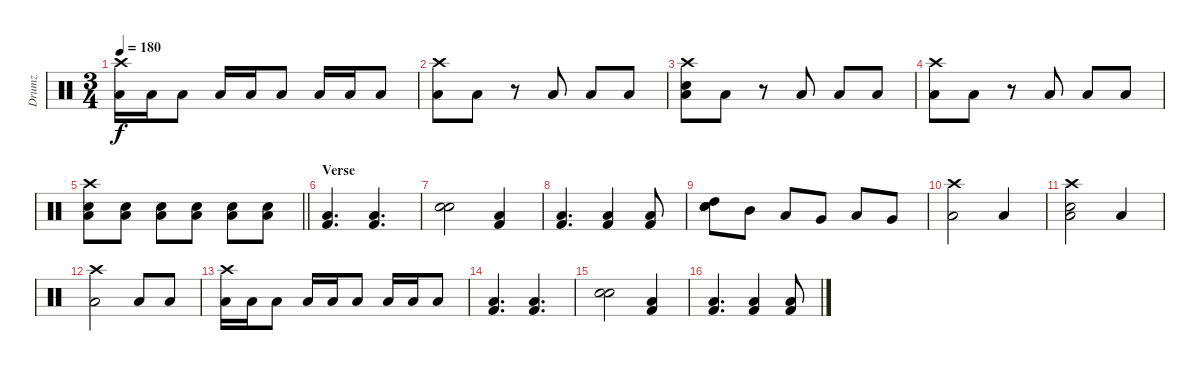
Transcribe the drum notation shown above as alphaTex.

\track ("Drumz" "Drumz") {instrument percussion}
\staff {score}
\articulation defaults
\ts (3 4)
\tempo 180
\clef neutral
\ks c
("Low Floor Tom (hit)" "Crash high (hit)").16{dy f} "Low Floor Tom (hit)".16 "Low Floor Tom (hit)".8 "Low Floor Tom (hit)".16 "Low Floor Tom (hit)".16 "Low Floor Tom (hit)".8 "Low Floor Tom (hit)".16 "Low Floor Tom (hit)".16 "Low Floor Tom (hit)".8 |
("Low Floor Tom (hit)" "Crash high (hit)").8 "Low Floor Tom (hit)".8 r.8 "Low Floor Tom (hit)".8 "Low Floor Tom (hit)".8 "Low Floor Tom (hit)".8 |
("Low Floor Tom (hit)" "Crash high (hit)" "Electric Snare (hit)").8 "Low Floor Tom (hit)".8 r.8 "Low Floor Tom (hit)".8 "Low Floor Tom (hit)".8 "Low Floor Tom (hit)".8 |
("Low Floor Tom (hit)" "Crash high (hit)").8 "Low Floor Tom (hit)".8 r.8 "Low Floor Tom (hit)".8 "Low Floor Tom (hit)".8 "Low Floor Tom (hit)".8 |
\barLineRight lightlight
("Low Floor Tom (hit)" "Crash high (hit)" "Snare (hit) 2").8 ("Low Floor Tom (hit)" "Snare (hit) 2").8 ("Low Floor Tom (hit)" "Snare (hit) 2").8 ("Low Floor Tom (hit)" "Snare (hit) 2").8 ("Low Floor Tom (hit)" "Snare (hit) 2").8 ("Low Floor Tom (hit)" "Snare (hit) 2").8 |
\section ("" "Verse")
("Kick (hit) 2" "Low Floor Tom (hit)").4{d} ("Kick (hit) 2" "Low Floor Tom (hit)").4{d} |
("Electric Snare (hit)" "Electric Snare (hit)").2 ("Kick (hit) 2" "Low Floor Tom (hit)").4 |
("Kick (hit) 2" "Low Floor Tom (hit)").4{d} ("Kick (hit) 2" "Low Floor Tom (hit)").4 ("Kick (hit) 2" "Low Floor Tom (hit)").8 |
("Electric Snare (hit)" "Electric Snare (hit)" "High Tom (hit)").8 "Mid Tom (hit)".8 "Low Tom (hit)".8 "Very Low Tom (hit)".8 "Low Tom (hit)".8 "Very Low Tom (hit)".8 |
("Low Floor Tom (hit)" "Crash high (hit)").2 "Low Floor Tom (hit)".4 |
("Low Floor Tom (hit)" "Crash high (hit)" "Electric Snare (hit)").2 "Low Floor Tom (hit)".4 |
("Low Floor Tom (hit)" "Crash high (hit)").2 "Low Floor Tom (hit)".8 "Low Floor Tom (hit)".8 |
("Low Floor Tom (hit)" "Crash high (hit)").16 "Low Floor Tom (hit)".16 "Low Floor Tom (hit)".8 "Low Floor Tom (hit)".16 "Low Floor Tom (hit)".16 "Low Floor Tom (hit)".8 "Low Floor Tom (hit)".16 "Low Floor Tom (hit)".16 "Low Floor Tom (hit)".8 |
("Kick (hit) 2" "Low Floor Tom (hit)").4{d} ("Kick (hit) 2" "Low Floor Tom (hit)").4{d} |
("Electric Snare (hit)" "Electric Snare (hit)").2 ("Kick (hit) 2" "Low Floor Tom (hit)").4 |
("Kick (hit) 2" "Low Floor Tom (hit)").4{d} ("Kick (hit) 2" "Low Floor Tom (hit)").4 ("Kick (hit) 2" "Low Floor Tom (hit)").8
